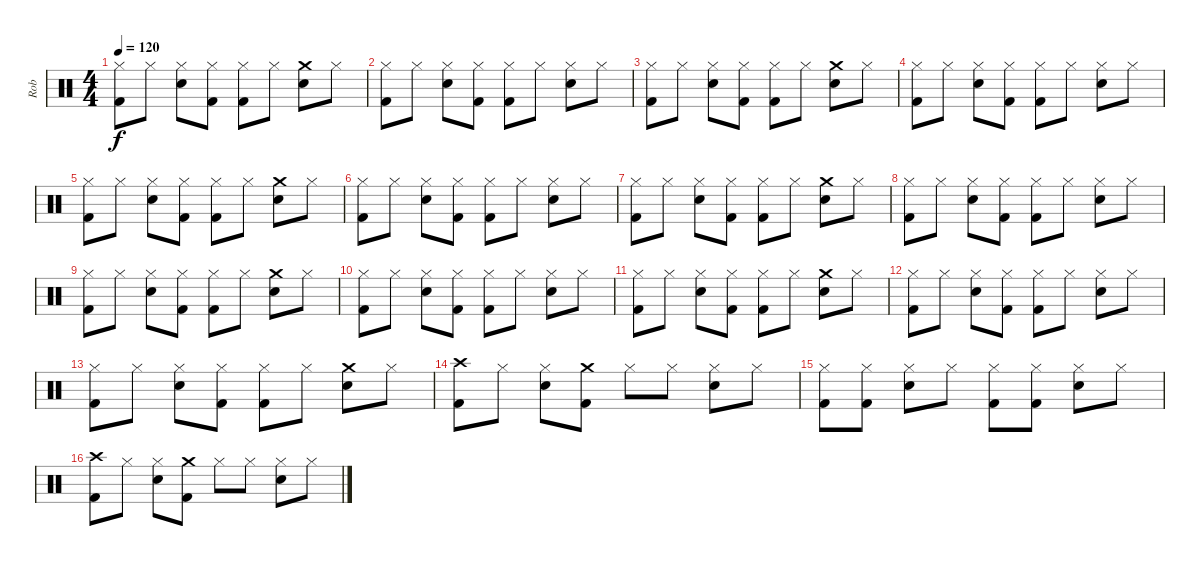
\track ("Rob" "Rob") {instrument percussion}
\staff {score}
\articulation defaults
\ts (4 4)
\tempo 120
\clef neutral
\ks c
("Hi-Hat (closed)" "Kick (hit) 2").8{dy f} "Hi-Hat (closed)".8 ("Hi-Hat (closed)" "Electric Snare (hit)").8 ("Hi-Hat (closed)" "Kick (hit) 2").8 ("Hi-Hat (closed)" "Kick (hit) 2").8 "Hi-Hat (closed)".8 ("Crash medium (hit)" "Electric Snare (hit)").8 "Hi-Hat (closed)".8 |
("Hi-Hat (closed)" "Kick (hit) 2").8 "Hi-Hat (closed)".8 ("Hi-Hat (closed)" "Electric Snare (hit)").8 ("Hi-Hat (closed)" "Kick (hit) 2").8 ("Hi-Hat (closed)" "Kick (hit) 2").8 "Hi-Hat (closed)".8 ("Hi-Hat (closed)" "Electric Snare (hit)").8 "Hi-Hat (closed)".8 |
("Hi-Hat (closed)" "Kick (hit) 2").8 "Hi-Hat (closed)".8 ("Hi-Hat (closed)" "Electric Snare (hit)").8 ("Hi-Hat (closed)" "Kick (hit) 2").8 ("Hi-Hat (closed)" "Kick (hit) 2").8 "Hi-Hat (closed)".8 ("Crash medium (hit)" "Electric Snare (hit)").8 "Hi-Hat (closed)".8 |
("Hi-Hat (closed)" "Kick (hit) 2").8 "Hi-Hat (closed)".8 ("Hi-Hat (closed)" "Electric Snare (hit)").8 ("Hi-Hat (closed)" "Kick (hit) 2").8 ("Hi-Hat (closed)" "Kick (hit) 2").8 "Hi-Hat (closed)".8 ("Hi-Hat (closed)" "Electric Snare (hit)").8 "Hi-Hat (closed)".8 |
("Hi-Hat (closed)" "Kick (hit) 2").8 "Hi-Hat (closed)".8 ("Hi-Hat (closed)" "Electric Snare (hit)").8 ("Hi-Hat (closed)" "Kick (hit) 2").8 ("Hi-Hat (closed)" "Kick (hit) 2").8 "Hi-Hat (closed)".8 ("Crash medium (hit)" "Electric Snare (hit)").8 "Hi-Hat (closed)".8 |
("Hi-Hat (closed)" "Kick (hit) 2").8 "Hi-Hat (closed)".8 ("Hi-Hat (closed)" "Electric Snare (hit)").8 ("Hi-Hat (closed)" "Kick (hit) 2").8 ("Hi-Hat (closed)" "Kick (hit) 2").8 "Hi-Hat (closed)".8 ("Hi-Hat (closed)" "Electric Snare (hit)").8 "Hi-Hat (closed)".8 |
("Hi-Hat (closed)" "Kick (hit) 2").8 "Hi-Hat (closed)".8 ("Hi-Hat (closed)" "Electric Snare (hit)").8 ("Hi-Hat (closed)" "Kick (hit) 2").8 ("Hi-Hat (closed)" "Kick (hit) 2").8 "Hi-Hat (closed)".8 ("Crash medium (hit)" "Electric Snare (hit)").8 "Hi-Hat (closed)".8 |
("Hi-Hat (closed)" "Kick (hit) 2").8 "Hi-Hat (closed)".8 ("Hi-Hat (closed)" "Electric Snare (hit)").8 ("Hi-Hat (closed)" "Kick (hit) 2").8 ("Hi-Hat (closed)" "Kick (hit) 2").8 "Hi-Hat (closed)".8 ("Hi-Hat (closed)" "Electric Snare (hit)").8 "Hi-Hat (closed)".8 |
("Hi-Hat (closed)" "Kick (hit) 2").8 "Hi-Hat (closed)".8 ("Hi-Hat (closed)" "Electric Snare (hit)").8 ("Hi-Hat (closed)" "Kick (hit) 2").8 ("Hi-Hat (closed)" "Kick (hit) 2").8 "Hi-Hat (closed)".8 ("Crash medium (hit)" "Electric Snare (hit)").8 "Hi-Hat (closed)".8 |
("Hi-Hat (closed)" "Kick (hit) 2").8 "Hi-Hat (closed)".8 ("Hi-Hat (closed)" "Electric Snare (hit)").8 ("Hi-Hat (closed)" "Kick (hit) 2").8 ("Hi-Hat (closed)" "Kick (hit) 2").8 "Hi-Hat (closed)".8 ("Hi-Hat (closed)" "Electric Snare (hit)").8 "Hi-Hat (closed)".8 |
("Hi-Hat (closed)" "Kick (hit) 2").8 "Hi-Hat (closed)".8 ("Hi-Hat (closed)" "Electric Snare (hit)").8 ("Hi-Hat (closed)" "Kick (hit) 2").8 ("Hi-Hat (closed)" "Kick (hit) 2").8 "Hi-Hat (closed)".8 ("Crash medium (hit)" "Electric Snare (hit)").8 "Hi-Hat (closed)".8 |
("Hi-Hat (closed)" "Kick (hit) 2").8 "Hi-Hat (closed)".8 ("Hi-Hat (closed)" "Electric Snare (hit)").8 ("Hi-Hat (closed)" "Kick (hit) 2").8 ("Hi-Hat (closed)" "Kick (hit) 2").8 "Hi-Hat (closed)".8 ("Hi-Hat (closed)" "Electric Snare (hit)").8 "Hi-Hat (closed)".8 |
("Hi-Hat (closed)" "Kick (hit) 2").8 "Hi-Hat (closed)".8 ("Hi-Hat (closed)" "Electric Snare (hit)").8 ("Hi-Hat (closed)" "Kick (hit) 2").8 ("Hi-Hat (closed)" "Kick (hit) 2").8 "Hi-Hat (closed)".8 ("Crash medium (hit)" "Electric Snare (hit)").8 "Hi-Hat (closed)".8 |
("Crash high (hit)" "Kick (hit) 2").8 "Hi-Hat (closed)".8 ("Hi-Hat (closed)" "Electric Snare (hit)").8 ("Crash medium (hit)" "Kick (hit) 2").8 "Hi-Hat (closed)".8 "Hi-Hat (closed)".8 ("Hi-Hat (closed)" "Electric Snare (hit)").8 "Hi-Hat (closed)".8 |
("Hi-Hat (closed)" "Kick (hit) 2").8 ("Hi-Hat (closed)" "Kick (hit) 2").8 ("Hi-Hat (closed)" "Electric Snare (hit)").8 "Hi-Hat (closed)".8 ("Hi-Hat (closed)" "Kick (hit) 2").8 ("Hi-Hat (closed)" "Kick (hit) 2").8 ("Hi-Hat (closed)" "Electric Snare (hit)").8 "Hi-Hat (closed)".8 |
("Crash high (hit)" "Kick (hit) 2").8 "Hi-Hat (closed)".8 ("Hi-Hat (closed)" "Electric Snare (hit)").8 ("Crash medium (hit)" "Kick (hit) 2").8 "Hi-Hat (closed)".8 "Hi-Hat (closed)".8 ("Hi-Hat (closed)" "Electric Snare (hit)").8 "Hi-Hat (closed)".8
